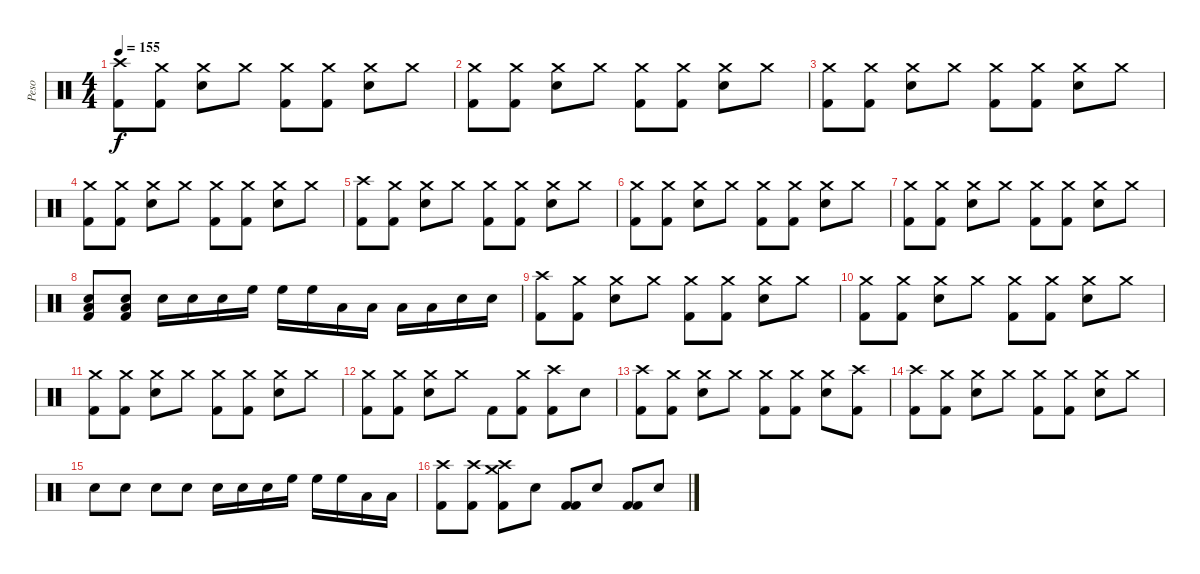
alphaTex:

\track ("Peso" "Peso") {instrument percussion}
\staff {score}
\articulation defaults
\ts (4 4)
\tempo 155
\clef neutral
\ks c
("Crash high (hit)" "Kick (hit) 2").8{dy f} ("Crash medium (hit)"{x} "Kick (hit) 2").8 ("Crash medium (hit)" "Snare (hit) 2").8 "Crash medium (hit)"{x}.8 ("Crash medium (hit)" "Kick (hit) 2").8 ("Crash medium (hit)"{x} "Kick (hit) 2").8 ("Crash medium (hit)" "Snare (hit) 2").8 "Crash medium (hit)"{x}.8 |
("Crash medium (hit)" "Kick (hit) 2").8 ("Crash medium (hit)"{x} "Kick (hit) 2").8 ("Crash medium (hit)" "Snare (hit) 2").8 "Crash medium (hit)"{x}.8 ("Crash medium (hit)" "Kick (hit) 2").8 ("Crash medium (hit)"{x} "Kick (hit) 2").8 ("Crash medium (hit)" "Snare (hit) 2").8 "Crash medium (hit)"{x}.8 |
("Crash medium (hit)" "Kick (hit) 2").8 ("Crash medium (hit)"{x} "Kick (hit) 2").8 ("Crash medium (hit)" "Snare (hit) 2").8 "Crash medium (hit)"{x}.8 ("Crash medium (hit)" "Kick (hit) 2").8 ("Crash medium (hit)"{x} "Kick (hit) 2").8 ("Crash medium (hit)" "Snare (hit) 2").8 "Crash medium (hit)"{x}.8 |
("Crash medium (hit)" "Kick (hit) 2").8 ("Crash medium (hit)"{x} "Kick (hit) 2").8 ("Crash medium (hit)" "Snare (hit) 2").8 "Crash medium (hit)"{x}.8 ("Crash medium (hit)" "Kick (hit) 2").8 ("Crash medium (hit)"{x} "Kick (hit) 2").8 ("Crash medium (hit)" "Snare (hit) 2").8 "Crash medium (hit)"{x}.8 |
("Crash high (hit)" "Kick (hit) 2").8 ("Crash medium (hit)"{x} "Kick (hit) 2").8 ("Crash medium (hit)" "Snare (hit) 2").8 "Crash medium (hit)"{x}.8 ("Crash medium (hit)" "Kick (hit) 2").8 ("Crash medium (hit)"{x} "Kick (hit) 2").8 ("Crash medium (hit)" "Snare (hit) 2").8 "Crash medium (hit)"{x}.8 |
("Crash medium (hit)" "Kick (hit) 2").8 ("Crash medium (hit)"{x} "Kick (hit) 2").8 ("Crash medium (hit)" "Snare (hit) 2").8 "Crash medium (hit)"{x}.8 ("Crash medium (hit)" "Kick (hit) 2").8 ("Crash medium (hit)"{x} "Kick (hit) 2").8 ("Crash medium (hit)" "Snare (hit) 2").8 "Crash medium (hit)"{x}.8 |
("Crash medium (hit)" "Kick (hit) 2").8 ("Crash medium (hit)"{x} "Kick (hit) 2").8 ("Crash medium (hit)" "Snare (hit) 2").8 "Crash medium (hit)"{x}.8 ("Crash medium (hit)" "Kick (hit) 2").8 ("Crash medium (hit)"{x} "Kick (hit) 2").8 ("Crash medium (hit)" "Snare (hit) 2").8 "Crash medium (hit)"{x}.8 |
("Low Floor Tom (hit)" "Snare (hit) 2" "Kick (hit) 2").8 ("Low Floor Tom (hit)" "Snare (hit) 2" "Kick (hit) 2").8 "Snare (hit) 2".16 "Snare (hit) 2".16 "Snare (hit) 2".16 "High Floor Tom (hit)".16 "High Floor Tom (hit)".16 "High Floor Tom (hit)".16 "Low Floor Tom (hit)".16 "Low Floor Tom (hit)".16 "Low Floor Tom (hit)".16 "Low Floor Tom (hit)".16 "Snare (hit) 2".16 "Snare (hit) 2".16 |
("Crash high (hit)" "Kick (hit) 2").8 ("Crash medium (hit)"{x} "Kick (hit) 2").8 ("Crash medium (hit)" "Snare (hit) 2").8 "Crash medium (hit)"{x}.8 ("Crash medium (hit)" "Kick (hit) 2").8 ("Crash medium (hit)"{x} "Kick (hit) 2").8 ("Crash medium (hit)" "Snare (hit) 2").8 "Crash medium (hit)"{x}.8 |
("Crash medium (hit)" "Kick (hit) 2").8 ("Crash medium (hit)"{x} "Kick (hit) 2").8 ("Crash medium (hit)" "Snare (hit) 2").8 "Crash medium (hit)"{x}.8 ("Crash medium (hit)" "Kick (hit) 2").8 ("Crash medium (hit)"{x} "Kick (hit) 2").8 ("Crash medium (hit)" "Snare (hit) 2").8 "Crash medium (hit)"{x}.8 |
("Crash medium (hit)" "Kick (hit) 2").8 ("Crash medium (hit)"{x} "Kick (hit) 2").8 ("Crash medium (hit)" "Snare (hit) 2").8 "Crash medium (hit)"{x}.8 ("Crash medium (hit)" "Kick (hit) 2").8 ("Crash medium (hit)"{x} "Kick (hit) 2").8 ("Crash medium (hit)" "Snare (hit) 2").8 "Crash medium (hit)"{x}.8 |
("Crash medium (hit)" "Kick (hit) 2").8 ("Crash medium (hit)"{x} "Kick (hit) 2").8 ("Crash medium (hit)" "Snare (hit) 2").8 "Crash medium (hit)"{x}.8 "Kick (hit) 2".8 ("Crash medium (hit)"{x} "Kick (hit) 2").8 ("Crash high (hit)" "Kick (hit) 2").8 "Snare (hit)"{x}.8 |
("Crash high (hit)" "Kick (hit) 2").8 ("Crash medium (hit)"{x} "Kick (hit) 2").8 ("Crash medium (hit)" "Snare (hit) 2").8 "Crash medium (hit)"{x}.8 ("Crash medium (hit)" "Kick (hit) 2").8 ("Crash medium (hit)"{x} "Kick (hit) 2").8 ("Crash medium (hit)" "Snare (hit) 2").8 ("Crash high (hit)" "Kick (hit) 2").8 |
("Crash high (hit)" "Kick (hit) 2").8 ("Crash medium (hit)"{x} "Kick (hit) 2").8 ("Crash medium (hit)" "Snare (hit) 2").8 "Crash medium (hit)"{x}.8 ("Crash medium (hit)" "Kick (hit) 2").8 ("Crash medium (hit)"{x} "Kick (hit) 2").8 ("Crash medium (hit)" "Snare (hit) 2").8 "Crash medium (hit)"{x}.8 |
"Snare (hit) 2".8 "Snare (hit) 2".8 "Snare (hit) 2".8 "Snare (hit) 2".8 "Snare (hit) 2".16 "Snare (hit) 2".16 "Snare (hit) 2".16 "High Floor Tom (hit)".16 "High Floor Tom (hit)".16 "High Floor Tom (hit)".16 "Low Floor Tom (hit)".16 "Low Floor Tom (hit)".16 |
("Crash high (hit)" "Kick (hit) 2").8 ("Crash high (hit)" "Kick (hit) 2").8 ("Crash high (hit)" "Crash medium (hit)" "Kick (hit) 2").8 "Snare (hit)"{x}.8 ("Kick (hit) 2" "Kick (hit) 2").8 "Snare (hit)"{x}.8 ("Kick (hit) 2" "Kick (hit) 2").8 "Snare (hit)"{x}.8
